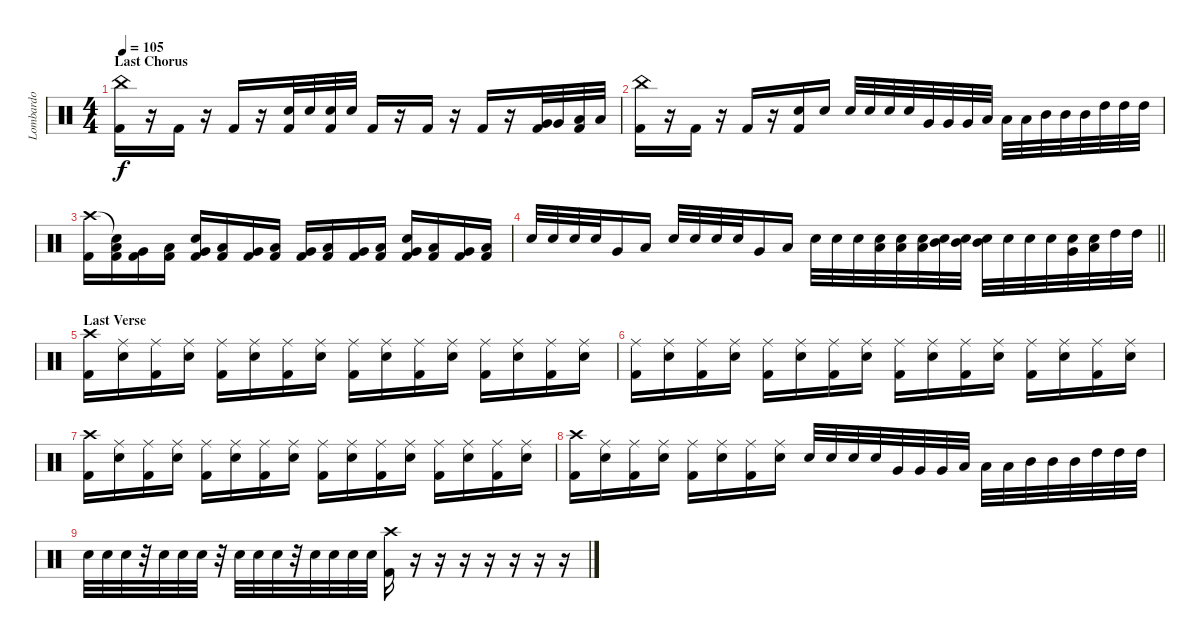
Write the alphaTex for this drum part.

\track ("Lombardo" "Lombardo") {instrument percussion}
\staff {score}
\articulation defaults
\ts (4 4)
\section ("" "Last Chorus")
\tempo 105
\clef neutral
\ks c
("China (hit)" "Kick (hit) 2").16{dy f} r.16 "Kick (hit) 2".16 r.16 "Kick (hit) 2".16 r.16 ("Kick (hit) 2" "Snare (hit) 2").32 "Snare (hit) 2".32 ("Kick (hit) 2" "Snare (hit) 2").32 "Snare (hit) 2".32 "Kick (hit) 2".16 r.16 "Kick (hit) 2".16 r.16 "Kick (hit) 2".16 r.16 ("Kick (hit) 2" "Very Low Tom (hit)").32 "Very Low Tom (hit)".32 ("Kick (hit) 2" "Low Tom (hit)").32 "Low Tom (hit)".32 |
("China (hit)" "Kick (hit) 2").16 r.16 "Kick (hit) 2".16 r.16 "Kick (hit) 2".16 r.16 ("Kick (hit) 2" "Snare (hit) 2").16 "Snare (hit) 2".16 "Snare (hit) 2".32 "Snare (hit) 2".32 "Snare (hit) 2".32 "Snare (hit) 2".32 "Very Low Tom (hit)".32 "Very Low Tom (hit)".32 "Very Low Tom (hit)".32 "Low Tom (hit)".32 "Low Tom (hit)".32 "Low Tom (hit)".32 "Mid Tom (hit)".32 "Mid Tom (hit)".32 "Mid Tom (hit)".32 "High Tom (hit)".32 "High Tom (hit)".32 "High Tom (hit)".32 |
("Crash high (hit)" "Kick (hit) 2").16 ("Snare (hit)"{t} "Kick (hit) 2" "Low Tom (hit)").16 ("Kick (hit) 2" "Very Low Tom (hit)").16 ("Kick (hit) 2" "Low Tom (hit)").16 ("Kick (hit) 2" "Very Low Tom (hit)" "Snare (hit) 2").16 ("Kick (hit) 2" "Low Tom (hit)").16 ("Kick (hit) 2" "Very Low Tom (hit)").16 ("Kick (hit) 2" "Low Tom (hit)").16 ("Kick (hit) 2" "Very Low Tom (hit)").16 ("Kick (hit) 2" "Low Tom (hit)").16 ("Kick (hit) 2" "Very Low Tom (hit)").16 ("Kick (hit) 2" "Low Tom (hit)").16 ("Kick (hit) 2" "Very Low Tom (hit)" "Snare (hit) 2").16 ("Kick (hit) 2" "Low Tom (hit)").16 ("Kick (hit) 2" "Very Low Tom (hit)").16 ("Kick (hit) 2" "Low Tom (hit)").16 |
\barLineRight lightlight "Snare (hit) 2".32 "Snare (hit) 2".32 "Snare (hit) 2".32 "Snare (hit) 2".32 "Very Low Tom (hit)".16 "Low Tom (hit)".16 "Snare (hit) 2".32 "Snare (hit) 2".32 "Snare (hit) 2".32 "Snare (hit) 2".32 "Very Low Tom (hit)".16 "Low Tom (hit)".16 "Snare (hit) 2".32 "Snare (hit) 2".32 "Snare (hit) 2".32
("Low Tom (hit)" "Snare (hit) 2").32 ("Low Tom (hit)" "Snare (hit) 2").32 ("Low Tom (hit)" "Snare (hit) 2").32 ("Mid Tom (hit)" "Snare (hit) 2").32 ("Mid Tom (hit)" "Snare (hit) 2").32 ("Mid Tom (hit)" "Snare (hit) 2").32 "Snare (hit) 2".32 "Snare (hit) 2".32 "Snare (hit) 2".32 ("Very Low Tom (hit)" "Snare (hit) 2").32 ("Low Tom (hit)" "Snare (hit) 2").32 "High Tom (hit)".32 "High Tom (hit)".32 |
\section ("" "Last Verse")
("Crash high (hit)" "Kick (hit) 2").16 ("Ride (middle)" "Snare (hit) 2").16 ("Ride (middle)" "Kick (hit) 2").16 ("Ride (middle)" "Snare (hit) 2").16 ("Ride (middle)" "Kick (hit) 2").16 ("Ride (middle)" "Snare (hit) 2").16 ("Ride (middle)" "Kick (hit) 2").16 ("Ride (middle)" "Snare (hit) 2").16 ("Ride (middle)" "Kick (hit) 2").16 ("Ride (middle)" "Snare (hit) 2").16 ("Ride (middle)" "Kick (hit) 2").16 ("Ride (middle)" "Snare (hit) 2").16 ("Ride (middle)" "Kick (hit) 2").16 ("Ride (middle)" "Snare (hit) 2").16 ("Ride (middle)" "Kick (hit) 2").16 ("Ride (middle)" "Snare (hit) 2").16 |
("Ride (middle)" "Kick (hit) 2").16 ("Ride (middle)" "Snare (hit) 2").16 ("Ride (middle)" "Kick (hit) 2").16 ("Ride (middle)" "Snare (hit) 2").16 ("Ride (middle)" "Kick (hit) 2").16 ("Ride (middle)" "Snare (hit) 2").16 ("Ride (middle)" "Kick (hit) 2").16 ("Ride (middle)" "Snare (hit) 2").16 ("Ride (middle)" "Kick (hit) 2").16 ("Ride (middle)" "Snare (hit) 2").16 ("Ride (middle)" "Kick (hit) 2").16 ("Ride (middle)" "Snare (hit) 2").16 ("Ride (middle)" "Kick (hit) 2").16 ("Ride (middle)" "Snare (hit) 2").16 ("Ride (middle)" "Kick (hit) 2").16 ("Ride (middle)" "Snare (hit) 2").16 |
("Crash high (hit)" "Kick (hit) 2").16 ("Ride (middle)" "Snare (hit) 2").16 ("Ride (middle)" "Kick (hit) 2").16 ("Ride (middle)" "Snare (hit) 2").16 ("Ride (middle)" "Kick (hit) 2").16 ("Ride (middle)" "Snare (hit) 2").16 ("Ride (middle)" "Kick (hit) 2").16 ("Ride (middle)" "Snare (hit) 2").16 ("Ride (middle)" "Kick (hit) 2").16 ("Ride (middle)" "Snare (hit) 2").16 ("Ride (middle)" "Kick (hit) 2").16 ("Ride (middle)" "Snare (hit) 2").16 ("Ride (middle)" "Kick (hit) 2").16 ("Ride (middle)" "Snare (hit) 2").16 ("Ride (middle)" "Kick (hit) 2").16 ("Ride (middle)" "Snare (hit) 2").16 |
("Crash high (hit)" "Kick (hit) 2").16 ("Ride (middle)" "Snare (hit) 2").16 ("Ride (middle)" "Kick (hit) 2").16 ("Ride (middle)" "Snare (hit) 2").16 ("Ride (middle)" "Kick (hit) 2").16 ("Ride (middle)" "Snare (hit) 2").16 ("Ride (middle)" "Kick (hit) 2").16 ("Ride (middle)" "Snare (hit) 2").16 "Snare (hit) 2".32 "Snare (hit) 2".32 "Snare (hit) 2".32 "Snare (hit) 2".32 "Very Low Tom (hit)".32 "Very Low Tom (hit)".32 "Very Low Tom (hit)".32 "Low Tom (hit)".32 "Low Tom (hit)".32 "Low Tom (hit)".32 "Mid Tom (hit)".32 "Mid Tom (hit)".32 "Mid Tom (hit)".32 "High Tom (hit)".32 "High Tom (hit)".32 "High Tom (hit)".32 |
"Snare (hit) 2".32 "Snare (hit) 2".32 "Snare (hit) 2".32 r.32 "Snare (hit) 2".32 "Snare (hit) 2".32 "Snare (hit) 2".32 r.32 "Snare (hit) 2".32 "Snare (hit) 2".32 "Snare (hit) 2".32 r.32 "Snare (hit) 2".32 "Snare (hit) 2".32 "Snare (hit) 2".32 "Snare (hit) 2".32 ("Crash high (hit)" "Kick (hit) 2").16 r.16 r.16 r.16 r.16 r.16 r.16 r.16
